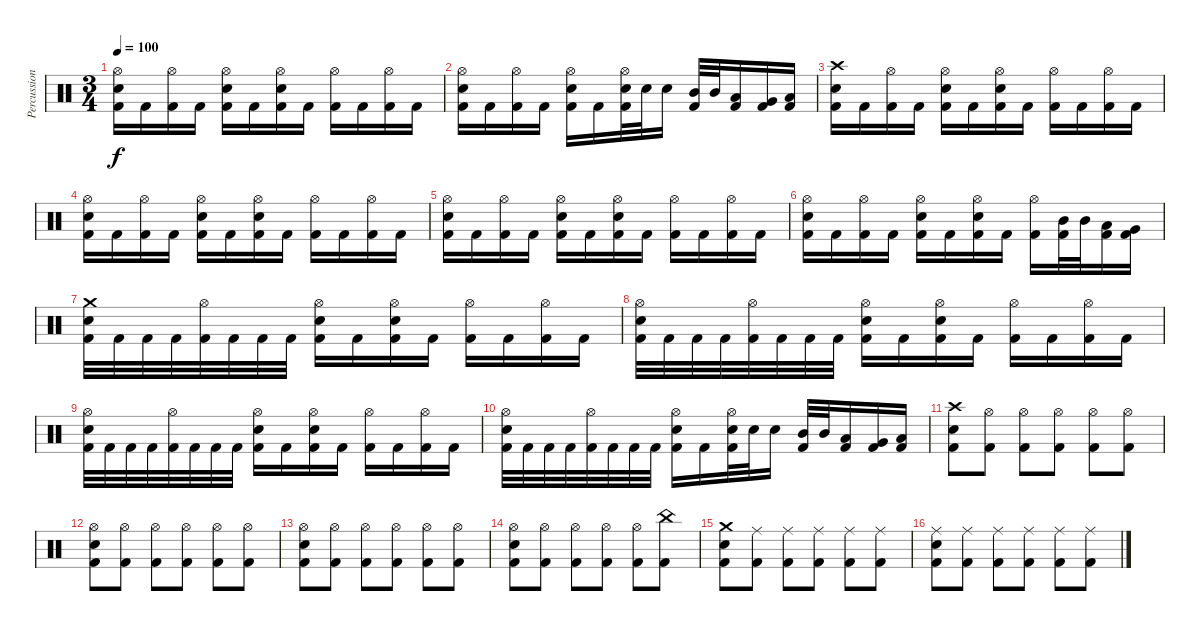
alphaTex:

\track ("Percussion" "Percussion") {instrument percussion}
\staff {score}
\articulation defaults
\ts (3 4)
\tempo 100
\clef neutral
\ks c
("Hi-Hat (open)" "Snare (hit) 2" "Kick (hit) 2").16{dy f} "Kick (hit) 2".16 ("Hi-Hat (open)" "Kick (hit) 2").16 "Kick (hit) 2".16 ("Hi-Hat (open)" "Snare (hit) 2" "Kick (hit) 2").16 "Kick (hit) 2".16 ("Hi-Hat (open)" "Snare (hit) 2" "Kick (hit) 2").16 "Kick (hit) 2".16 ("Hi-Hat (open)" "Kick (hit) 2").16 "Kick (hit) 2".16 ("Hi-Hat (open)" "Kick (hit) 2").16 "Kick (hit) 2".16 |
("Hi-Hat (open)" "Snare (hit) 2" "Kick (hit) 2").16 "Kick (hit) 2".16 ("Hi-Hat (open)" "Kick (hit) 2").16 "Kick (hit) 2".16 ("Hi-Hat (open)" "Snare (hit) 2" "Kick (hit) 2").16 "Kick (hit) 2".16 ("Hi-Hat (open)" "Snare (hit) 2" "Kick (hit) 2").32 "Snare (hit) 2".32 "Snare (hit) 2".16 ("Mid Tom (hit)" "Kick (hit) 2").32 "Mid Tom (hit)".32 ("Low Tom (hit)" "Kick (hit) 2").16 ("Very Low Tom (hit)" "Kick (hit) 2").16 ("Low Floor Tom (hit)" "Kick (hit) 2").16 |
("Crash high (hit)" "Snare (hit) 2" "Kick (hit) 2").16 "Kick (hit) 2".16 ("Hi-Hat (open)" "Kick (hit) 2").16 "Kick (hit) 2".16 ("Hi-Hat (open)" "Snare (hit) 2" "Kick (hit) 2").16 "Kick (hit) 2".16 ("Hi-Hat (open)" "Snare (hit) 2" "Kick (hit) 2").16 "Kick (hit) 2".16 ("Hi-Hat (open)" "Kick (hit) 2").16 "Kick (hit) 2".16 ("Hi-Hat (open)" "Kick (hit) 2").16 "Kick (hit) 2".16 |
("Hi-Hat (open)" "Snare (hit) 2" "Kick (hit) 2").16 "Kick (hit) 2".16 ("Hi-Hat (open)" "Kick (hit) 2").16 "Kick (hit) 2".16 ("Hi-Hat (open)" "Snare (hit) 2" "Kick (hit) 2").16 "Kick (hit) 2".16 ("Hi-Hat (open)" "Snare (hit) 2" "Kick (hit) 2").16 "Kick (hit) 2".16 ("Hi-Hat (open)" "Kick (hit) 2").16 "Kick (hit) 2".16 ("Hi-Hat (open)" "Kick (hit) 2").16 "Kick (hit) 2".16 |
("Hi-Hat (open)" "Snare (hit) 2" "Kick (hit) 2").16 "Kick (hit) 2".16 ("Hi-Hat (open)" "Kick (hit) 2").16 "Kick (hit) 2".16 ("Hi-Hat (open)" "Snare (hit) 2" "Kick (hit) 2").16 "Kick (hit) 2".16 ("Hi-Hat (open)" "Snare (hit) 2" "Kick (hit) 2").16 "Kick (hit) 2".16 ("Hi-Hat (open)" "Kick (hit) 2").16 "Kick (hit) 2".16 ("Hi-Hat (open)" "Kick (hit) 2").16 "Kick (hit) 2".16 |
("Hi-Hat (open)" "Snare (hit) 2" "Kick (hit) 2").16 "Kick (hit) 2".16 ("Hi-Hat (open)" "Kick (hit) 2").16 "Kick (hit) 2".16 ("Hi-Hat (open)" "Snare (hit) 2" "Kick (hit) 2").16 "Kick (hit) 2".16 ("Hi-Hat (open)" "Snare (hit) 2" "Kick (hit) 2").16 "Kick (hit) 2".16 ("Hi-Hat (open)" "Kick (hit) 2").16 ("Mid Tom (hit)" "Kick (hit) 2").32 "Mid Tom (hit)".32 ("Low Tom (hit)" "Kick (hit) 2").16 ("Very Low Tom (hit)" "Kick (hit) 2").16 |
("Crash medium (hit)" "Snare (hit) 2" "Kick (hit) 2").32 "Kick (hit) 2".32 "Kick (hit) 2".32 "Kick (hit) 2".32 ("Hi-Hat (open)" "Kick (hit) 2").32 "Kick (hit) 2".32 "Kick (hit) 2".32 "Kick (hit) 2".32 ("Hi-Hat (open)" "Snare (hit) 2" "Kick (hit) 2").16 "Kick (hit) 2".16 ("Hi-Hat (open)" "Snare (hit) 2" "Kick (hit) 2").16 "Kick (hit) 2".16 ("Hi-Hat (open)" "Kick (hit) 2").16 "Kick (hit) 2".16 ("Hi-Hat (open)" "Kick (hit) 2").16 "Kick (hit) 2".16 |
("Hi-Hat (open)" "Snare (hit) 2" "Kick (hit) 2").32 "Kick (hit) 2".32 "Kick (hit) 2".32 "Kick (hit) 2".32 ("Hi-Hat (open)" "Kick (hit) 2").32 "Kick (hit) 2".32 "Kick (hit) 2".32 "Kick (hit) 2".32 ("Hi-Hat (open)" "Snare (hit) 2" "Kick (hit) 2").16 "Kick (hit) 2".16 ("Hi-Hat (open)" "Snare (hit) 2" "Kick (hit) 2").16 "Kick (hit) 2".16 ("Hi-Hat (open)" "Kick (hit) 2").16 "Kick (hit) 2".16 ("Hi-Hat (open)" "Kick (hit) 2").16 "Kick (hit) 2".16 |
("Hi-Hat (open)" "Snare (hit) 2" "Kick (hit) 2").32 "Kick (hit) 2".32 "Kick (hit) 2".32 "Kick (hit) 2".32 ("Hi-Hat (open)" "Kick (hit) 2").32 "Kick (hit) 2".32 "Kick (hit) 2".32 "Kick (hit) 2".32 ("Hi-Hat (open)" "Snare (hit) 2" "Kick (hit) 2").16 "Kick (hit) 2".16 ("Hi-Hat (open)" "Snare (hit) 2" "Kick (hit) 2").16 "Kick (hit) 2".16 ("Hi-Hat (open)" "Kick (hit) 2").16 "Kick (hit) 2".16 ("Hi-Hat (open)" "Kick (hit) 2").16 "Kick (hit) 2".16 |
("Hi-Hat (open)" "Snare (hit) 2" "Kick (hit) 2").32 "Kick (hit) 2".32 "Kick (hit) 2".32 "Kick (hit) 2".32 ("Hi-Hat (open)" "Kick (hit) 2").32 "Kick (hit) 2".32 "Kick (hit) 2".32 "Kick (hit) 2".32 ("Hi-Hat (open)" "Snare (hit) 2" "Kick (hit) 2").16 "Kick (hit) 2".16 ("Hi-Hat (open)" "Snare (hit) 2" "Kick (hit) 2").32 "Snare (hit) 2".32 "Snare (hit) 2".16 ("Mid Tom (hit)" "Kick (hit) 2").32 "Mid Tom (hit)".32 ("Low Tom (hit)" "Kick (hit) 2").16 ("Very Low Tom (hit)" "Kick (hit) 2").16 ("Low Floor Tom (hit)" "Kick (hit) 2").16 |
("Crash high (hit)" "Snare (hit) 2" "Kick (hit) 2").8 ("Hi-Hat (open)" "Kick (hit) 2").8 ("Hi-Hat (open)" "Kick (hit) 2").8 ("Hi-Hat (open)" "Kick (hit) 2").8 ("Hi-Hat (open)" "Kick (hit) 2").8 ("Hi-Hat (open)" "Kick (hit) 2").8 |
("Hi-Hat (open)" "Snare (hit) 2" "Kick (hit) 2").8 ("Hi-Hat (open)" "Kick (hit) 2").8 ("Hi-Hat (open)" "Kick (hit) 2").8 ("Hi-Hat (open)" "Kick (hit) 2").8 ("Hi-Hat (open)" "Kick (hit) 2").8 ("Hi-Hat (open)" "Kick (hit) 2").8 |
("Hi-Hat (open)" "Snare (hit) 2" "Kick (hit) 2").8 ("Hi-Hat (open)" "Kick (hit) 2").8 ("Hi-Hat (open)" "Kick (hit) 2").8 ("Hi-Hat (open)" "Kick (hit) 2").8 ("Hi-Hat (open)" "Kick (hit) 2").8 ("Hi-Hat (open)" "Kick (hit) 2").8 |
("Hi-Hat (open)" "Snare (hit) 2" "Kick (hit) 2").8 ("Hi-Hat (open)" "Kick (hit) 2").8 ("Hi-Hat (open)" "Kick (hit) 2").8 ("Hi-Hat (open)" "Kick (hit) 2").8 ("Hi-Hat (open)" "Kick (hit) 2").8 ("China (hit)" "Kick (hit) 2").8 |
("Crash medium (hit)" "Snare (hit) 2" "Kick (hit) 2").8 ("Ride (middle)" "Kick (hit) 2").8 ("Ride (middle)" "Kick (hit) 2").8 ("Ride (middle)" "Kick (hit) 2").8 ("Ride (middle)" "Kick (hit) 2").8 ("Ride (middle)" "Kick (hit) 2").8 |
("Ride (middle)" "Snare (hit) 2" "Kick (hit) 2").8 ("Ride (middle)" "Kick (hit) 2").8 ("Ride (middle)" "Kick (hit) 2").8 ("Ride (middle)" "Kick (hit) 2").8 ("Ride (middle)" "Kick (hit) 2").8 ("Ride (middle)" "Kick (hit) 2").8
